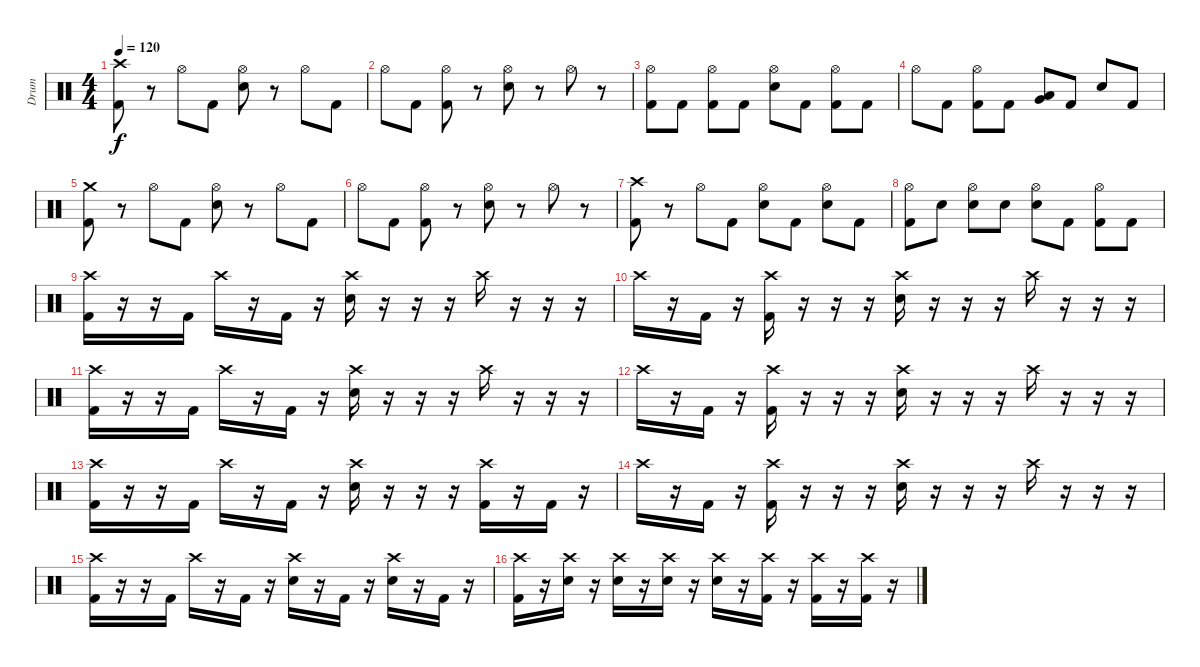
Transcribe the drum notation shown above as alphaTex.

\track ("Drum" "Drum") {instrument percussion}
\staff {score}
\articulation defaults
\ts (4 4)
\tempo 120
\clef neutral
\ks c
("Crash high (hit)" "Kick (hit) 2").8{dy f} r.8 "Hi-Hat (open)".8 "Kick (hit) 2".8 ("Hi-Hat (open)" "Electric Snare (hit)").8 r.8 "Hi-Hat (open)".8 "Kick (hit) 2".8 |
"Hi-Hat (open)".8 "Kick (hit) 2".8 ("Hi-Hat (open)" "Kick (hit) 2").8 r.8 ("Hi-Hat (open)" "Electric Snare (hit)").8 r.8 "Hi-Hat (open)".8 r.8 |
("Hi-Hat (open)" "Kick (hit) 2").8 "Kick (hit) 2".8 ("Hi-Hat (open)" "Kick (hit) 2").8 "Kick (hit) 2".8 ("Hi-Hat (open)" "Electric Snare (hit)").8 "Kick (hit) 2".8 ("Hi-Hat (open)" "Kick (hit) 2").8 "Kick (hit) 2".8 |
"Hi-Hat (open)".8 "Kick (hit) 2".8 ("Hi-Hat (open)" "Kick (hit) 2").8 "Kick (hit) 2".8 ("Very Low Tom (hit)" "Low Tom (hit)").8 "Kick (hit) 2".8 "Electric Snare (hit)".8 "Kick (hit) 2".8 |
("Crash medium (hit)" "Kick (hit) 2").8 r.8 "Hi-Hat (open)".8 "Kick (hit) 2".8 ("Hi-Hat (open)" "Electric Snare (hit)").8 r.8 "Hi-Hat (open)".8 "Kick (hit) 2".8 |
"Hi-Hat (open)".8 "Kick (hit) 2".8 ("Hi-Hat (open)" "Kick (hit) 2").8 r.8 ("Hi-Hat (open)" "Electric Snare (hit)").8 r.8 "Hi-Hat (open)".8 r.8 |
("Crash high (hit)" "Kick (hit) 2").8 r.8 "Hi-Hat (open)".8 "Kick (hit) 2".8 ("Hi-Hat (open)" "Electric Snare (hit)").8 "Kick (hit) 2".8 ("Hi-Hat (open)" "Electric Snare (hit)").8 "Kick (hit) 2".8 |
("Hi-Hat (open)" "Kick (hit) 2").8 "Electric Snare (hit)".8 ("Hi-Hat (open)" "Electric Snare (hit)").8 "Electric Snare (hit)".8 ("Hi-Hat (open)" "Electric Snare (hit)").8 "Kick (hit) 2".8 ("Hi-Hat (open)" "Kick (hit) 2").8 "Kick (hit) 2".8 |
("Crash high (hit)" "Kick (hit) 2").16 r.16 r.16 "Kick (hit) 2".16 "Crash high (hit)".16 r.16 "Kick (hit) 2".16 r.16 ("Crash high (hit)" "Electric Snare (hit)").16 r.16 r.16 r.16 "Crash high (hit)".16 r.16 r.16 r.16 |
"Crash high (hit)".16 r.16 "Kick (hit) 2".16 r.16 ("Crash high (hit)" "Kick (hit) 2").16 r.16 r.16 r.16 ("Crash high (hit)" "Electric Snare (hit)").16 r.16 r.16 r.16 "Crash high (hit)".16 r.16 r.16 r.16 |
("Crash high (hit)" "Kick (hit) 2").16 r.16 r.16 "Kick (hit) 2".16 "Crash high (hit)".16 r.16 "Kick (hit) 2".16 r.16 ("Crash high (hit)" "Electric Snare (hit)").16 r.16 r.16 r.16 "Crash high (hit)".16 r.16 r.16 r.16 |
"Crash high (hit)".16 r.16 "Kick (hit) 2".16 r.16 ("Crash high (hit)" "Kick (hit) 2").16 r.16 r.16 r.16 ("Crash high (hit)" "Electric Snare (hit)").16 r.16 r.16 r.16 "Crash high (hit)".16 r.16 r.16 r.16 |
("Crash high (hit)" "Kick (hit) 2").16 r.16 r.16 "Kick (hit) 2".16 "Crash high (hit)".16 r.16 "Kick (hit) 2".16 r.16 ("Crash high (hit)" "Electric Snare (hit)").16 r.16 r.16 r.16 ("Crash high (hit)" "Kick (hit) 2").16 r.16 "Kick (hit) 2".16 r.16 |
"Crash high (hit)".16 r.16 "Kick (hit) 2".16 r.16 ("Crash high (hit)" "Kick (hit) 2").16 r.16 r.16 r.16 ("Crash high (hit)" "Electric Snare (hit)").16 r.16 r.16 r.16 "Crash high (hit)".16 r.16 r.16 r.16 |
("Crash high (hit)" "Kick (hit) 2").16 r.16 r.16 "Kick (hit) 2".16 "Crash high (hit)".16 r.16 "Kick (hit) 2".16 r.16 ("Crash high (hit)" "Electric Snare (hit)").16 r.16 "Kick (hit) 2".16 r.16 ("Crash high (hit)" "Electric Snare (hit)").16 r.16 "Kick (hit) 2".16 r.16 |
("Crash high (hit)" "Kick (hit) 2").16 r.16 ("Crash high (hit)" "Electric Snare (hit)").16 r.16 ("Crash high (hit)" "Electric Snare (hit)").16 r.16 ("Crash high (hit)" "Electric Snare (hit)").16 r.16 ("Crash high (hit)" "Electric Snare (hit)").16 r.16 ("Crash high (hit)" "Kick (hit) 2").16 r.16 ("Crash high (hit)" "Kick (hit) 2").16 r.16 ("Crash high (hit)" "Kick (hit) 2").16 r.16
